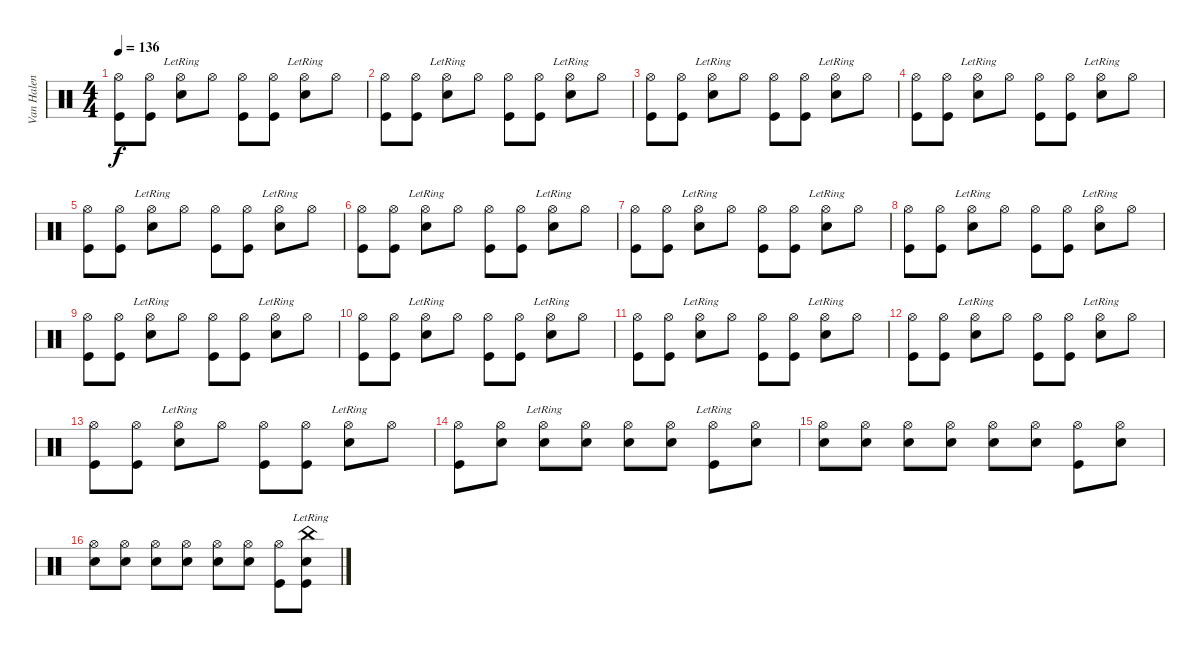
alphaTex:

\track ("Van Halen" "Van Halen") {instrument percussion}
\staff {score}
\articulation defaults
\ts (4 4)
\tempo 136
\clef neutral
\ks c
("Kick (hit)" "Hi-Hat (open)").8{dy f} ("Kick (hit)" "Hi-Hat (open)").8 ("Snare (hit) 2"{lr} "Hi-Hat (open)").8 "Hi-Hat (open)".8 ("Kick (hit)" "Hi-Hat (open)").8 ("Kick (hit)" "Hi-Hat (open)").8 ("Snare (hit) 2"{lr} "Hi-Hat (open)").8 "Hi-Hat (open)".8 |
("Kick (hit)" "Hi-Hat (open)").8 ("Kick (hit)" "Hi-Hat (open)").8 ("Snare (hit) 2"{lr} "Hi-Hat (open)").8 "Hi-Hat (open)".8 ("Kick (hit)" "Hi-Hat (open)").8 ("Kick (hit)" "Hi-Hat (open)").8 ("Snare (hit) 2"{lr} "Hi-Hat (open)").8 "Hi-Hat (open)".8 |
("Kick (hit)" "Hi-Hat (open)").8 ("Kick (hit)" "Hi-Hat (open)").8 ("Snare (hit) 2"{lr} "Hi-Hat (open)").8 "Hi-Hat (open)".8 ("Kick (hit)" "Hi-Hat (open)").8 ("Kick (hit)" "Hi-Hat (open)").8 ("Snare (hit) 2"{lr} "Hi-Hat (open)").8 "Hi-Hat (open)".8 |
("Kick (hit)" "Hi-Hat (open)").8 ("Kick (hit)" "Hi-Hat (open)").8 ("Snare (hit) 2"{lr} "Hi-Hat (open)").8 "Hi-Hat (open)".8 ("Kick (hit)" "Hi-Hat (open)").8 ("Kick (hit)" "Hi-Hat (open)").8 ("Snare (hit) 2"{lr} "Hi-Hat (open)").8 "Hi-Hat (open)".8 |
("Kick (hit)" "Hi-Hat (open)").8 ("Kick (hit)" "Hi-Hat (open)").8 ("Snare (hit) 2"{lr} "Hi-Hat (open)").8 "Hi-Hat (open)".8 ("Kick (hit)" "Hi-Hat (open)").8 ("Kick (hit)" "Hi-Hat (open)").8 ("Snare (hit) 2"{lr} "Hi-Hat (open)").8 "Hi-Hat (open)".8 |
("Kick (hit)" "Hi-Hat (open)").8 ("Kick (hit)" "Hi-Hat (open)").8 ("Snare (hit) 2"{lr} "Hi-Hat (open)").8 "Hi-Hat (open)".8 ("Kick (hit)" "Hi-Hat (open)").8 ("Kick (hit)" "Hi-Hat (open)").8 ("Snare (hit) 2"{lr} "Hi-Hat (open)").8 "Hi-Hat (open)".8 |
("Kick (hit)" "Hi-Hat (open)").8 ("Kick (hit)" "Hi-Hat (open)").8 ("Snare (hit) 2"{lr} "Hi-Hat (open)").8 "Hi-Hat (open)".8 ("Kick (hit)" "Hi-Hat (open)").8 ("Kick (hit)" "Hi-Hat (open)").8 ("Snare (hit) 2"{lr} "Hi-Hat (open)").8 "Hi-Hat (open)".8 |
("Kick (hit)" "Hi-Hat (open)").8 ("Kick (hit)" "Hi-Hat (open)").8 ("Snare (hit) 2"{lr} "Hi-Hat (open)").8 "Hi-Hat (open)".8 ("Kick (hit)" "Hi-Hat (open)").8 ("Kick (hit)" "Hi-Hat (open)").8 ("Snare (hit) 2"{lr} "Hi-Hat (open)").8 "Hi-Hat (open)".8 |
("Kick (hit)" "Hi-Hat (open)").8 ("Kick (hit)" "Hi-Hat (open)").8 ("Snare (hit) 2"{lr} "Hi-Hat (open)").8 "Hi-Hat (open)".8 ("Kick (hit)" "Hi-Hat (open)").8 ("Kick (hit)" "Hi-Hat (open)").8 ("Snare (hit) 2"{lr} "Hi-Hat (open)").8 "Hi-Hat (open)".8 |
("Kick (hit)" "Hi-Hat (open)").8 ("Kick (hit)" "Hi-Hat (open)").8 ("Snare (hit) 2"{lr} "Hi-Hat (open)").8 "Hi-Hat (open)".8 ("Kick (hit)" "Hi-Hat (open)").8 ("Kick (hit)" "Hi-Hat (open)").8 ("Snare (hit) 2"{lr} "Hi-Hat (open)").8 "Hi-Hat (open)".8 |
("Kick (hit)" "Hi-Hat (open)").8 ("Kick (hit)" "Hi-Hat (open)").8 ("Snare (hit) 2"{lr} "Hi-Hat (open)").8 "Hi-Hat (open)".8 ("Kick (hit)" "Hi-Hat (open)").8 ("Kick (hit)" "Hi-Hat (open)").8 ("Snare (hit) 2"{lr} "Hi-Hat (open)").8 "Hi-Hat (open)".8 |
("Kick (hit)" "Hi-Hat (open)").8 ("Kick (hit)" "Hi-Hat (open)").8 ("Snare (hit) 2"{lr} "Hi-Hat (open)").8 "Hi-Hat (open)".8 ("Kick (hit)" "Hi-Hat (open)").8 ("Kick (hit)" "Hi-Hat (open)").8 ("Snare (hit) 2"{lr} "Hi-Hat (open)").8 "Hi-Hat (open)".8 |
("Kick (hit)" "Hi-Hat (open)").8 ("Kick (hit)" "Hi-Hat (open)").8 ("Snare (hit) 2"{lr} "Hi-Hat (open)").8 "Hi-Hat (open)".8 ("Kick (hit)" "Hi-Hat (open)").8 ("Kick (hit)" "Hi-Hat (open)").8 ("Snare (hit) 2"{lr} "Hi-Hat (open)").8 "Hi-Hat (open)".8 |
("Kick (hit)" "Hi-Hat (open)").8 ("Snare (hit) 2" "Hi-Hat (open)").8 ("Snare (hit) 2"{lr} "Hi-Hat (open)").8 ("Snare (hit) 2" "Hi-Hat (open)").8 ("Snare (hit) 2" "Hi-Hat (open)").8 ("Snare (hit) 2" "Hi-Hat (open)").8 ("Kick (hit)"{lr} "Hi-Hat (open)").8 ("Snare (hit) 2" "Hi-Hat (open)").8 |
("Snare (hit) 2" "Hi-Hat (open)").8 ("Snare (hit) 2" "Hi-Hat (open)").8 ("Snare (hit) 2" "Hi-Hat (open)").8 ("Snare (hit) 2" "Hi-Hat (open)").8 ("Snare (hit) 2" "Hi-Hat (open)").8 ("Snare (hit) 2" "Hi-Hat (open)").8 ("Kick (hit)" "Hi-Hat (open)").8 ("Snare (hit) 2" "Hi-Hat (open)").8 |
("Snare (hit) 2" "Hi-Hat (open)").8 ("Snare (hit) 2" "Hi-Hat (open)").8 ("Snare (hit) 2" "Hi-Hat (open)").8 ("Snare (hit) 2" "Hi-Hat (open)").8 ("Snare (hit) 2" "Hi-Hat (open)").8 ("Snare (hit) 2" "Hi-Hat (open)").8 ("Kick (hit)" "Hi-Hat (open)").8 ("Snare (hit) 2" "Kick (hit)" "China (hit)"{lr}).8
